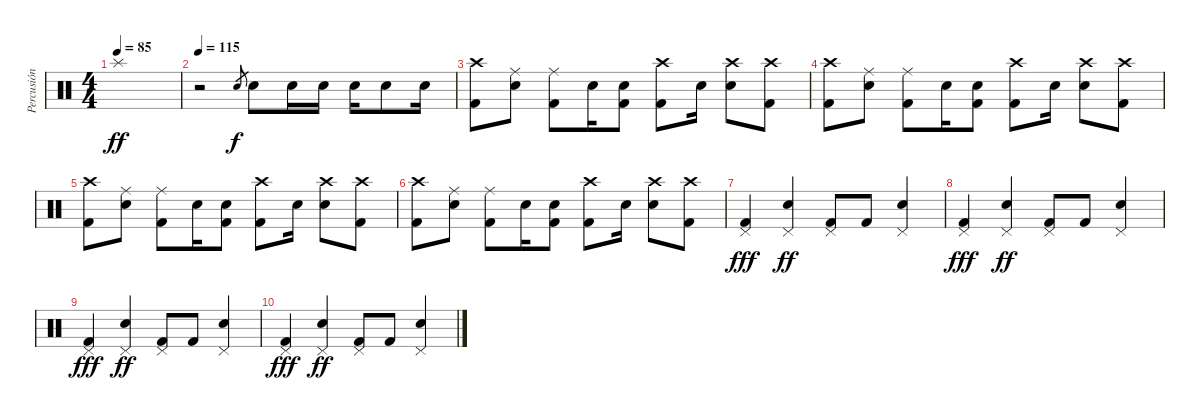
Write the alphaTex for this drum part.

\track ("Percusión" "Percusión") {instrument percussion}
\staff {score}
\articulation defaults
\ts (4 4)
\tempo 85
\clef neutral
\ks c "Splash (hit)".1{dy ff}
|
\tempo 115
r.2 "Snare (hit) 2".8{gr dy f} "Snare (hit) 2".8 "Snare (hit) 2".16 "Snare (hit) 2".16 "Snare (hit) 2".16 "Snare (hit) 2".8 "Snare (hit) 2".16 |
("Kick (hit) 2" "Crash high (hit)").8 ("Snare (hit) 2" "Ride (middle)").8 ("Kick (hit) 2" "Ride (middle)").8 "Snare (hit) 2".16 ("Snare (hit) 2" "Kick (hit) 2").8 ("Kick (hit) 2" "Crash high (hit)").8 "Snare (hit) 2".16 ("Crash high (hit)" "Snare (hit) 2").8 ("Kick (hit) 2" "Crash high (hit)").8 |
("Kick (hit) 2" "Crash high (hit)").8 ("Snare (hit) 2" "Ride (middle)").8 ("Kick (hit) 2" "Ride (middle)").8 "Snare (hit) 2".16 ("Snare (hit) 2" "Kick (hit) 2").8 ("Kick (hit) 2" "Crash high (hit)").8 "Snare (hit) 2".16 ("Crash high (hit)" "Snare (hit) 2").8 ("Kick (hit) 2" "Crash high (hit)").8 |
("Kick (hit) 2" "Crash high (hit)").8 ("Snare (hit) 2" "Ride (middle)").8 ("Kick (hit) 2" "Ride (middle)").8 "Snare (hit) 2".16 ("Snare (hit) 2" "Kick (hit) 2").8 ("Kick (hit) 2" "Crash high (hit)").8 "Snare (hit) 2".16 ("Crash high (hit)" "Snare (hit) 2").8 ("Kick (hit) 2" "Crash high (hit)").8 |
("Kick (hit) 2" "Crash high (hit)").8 ("Snare (hit) 2" "Ride (middle)").8 ("Kick (hit) 2" "Ride (middle)").8 "Snare (hit) 2".16 ("Snare (hit) 2" "Kick (hit) 2").8 ("Kick (hit) 2" "Crash high (hit)").8 "Snare (hit) 2".16 ("Crash high (hit)" "Snare (hit) 2").8 ("Kick (hit) 2" "Crash high (hit)").8 |
("Pedal Hi-Hat (hit)" "Kick (hit) 2").4{dy fff} ("Pedal Hi-Hat (hit)" "Snare (hit) 2").4{dy ff} ("Pedal Hi-Hat (hit)" "Kick (hit) 2").8 "Kick (hit) 2".8 ("Pedal Hi-Hat (hit)" "Snare (hit) 2").4 |
("Pedal Hi-Hat (hit)" "Kick (hit) 2").4{dy fff} ("Pedal Hi-Hat (hit)" "Snare (hit) 2").4{dy ff} ("Pedal Hi-Hat (hit)" "Kick (hit) 2").8 "Kick (hit) 2".8 ("Pedal Hi-Hat (hit)" "Snare (hit) 2").4 |
("Pedal Hi-Hat (hit)" "Kick (hit) 2").4{dy fff} ("Pedal Hi-Hat (hit)" "Snare (hit) 2").4{dy ff} ("Pedal Hi-Hat (hit)" "Kick (hit) 2").8 "Kick (hit) 2".8 ("Pedal Hi-Hat (hit)" "Snare (hit) 2").4 |
("Pedal Hi-Hat (hit)" "Kick (hit) 2").4{dy fff} ("Pedal Hi-Hat (hit)" "Snare (hit) 2").4{dy ff} ("Pedal Hi-Hat (hit)" "Kick (hit) 2").8 "Kick (hit) 2".8 ("Pedal Hi-Hat (hit)" "Snare (hit) 2").4
